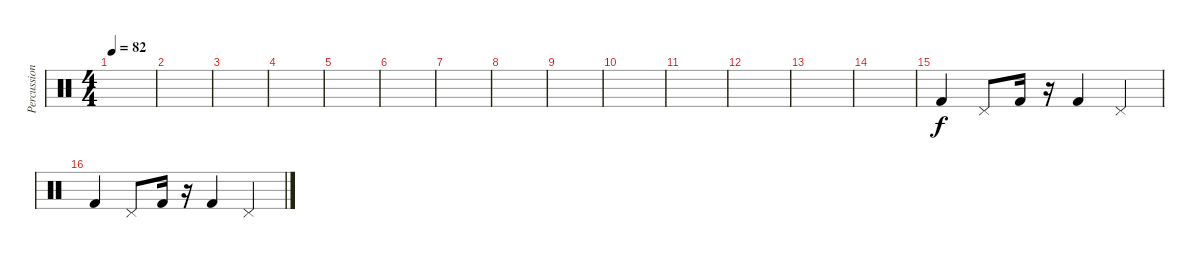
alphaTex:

\track ("Percussions" "Percussion") {instrument percussion}
\staff {score}
\articulation defaults
\ts (4 4)
\tempo 82
\clef neutral
\ks c
|
|
|
|
|
|
|
|
|
|
|
|
|
|
"Kick (hit) 2".4 "Pedal Hi-Hat (hit)".8 "Kick (hit) 2".16 r.16 "Kick (hit) 2".4 "Pedal Hi-Hat (hit)".4 |
"Kick (hit) 2".4 "Pedal Hi-Hat (hit)".8 "Kick (hit) 2".16 r.16 "Kick (hit) 2".4 "Pedal Hi-Hat (hit)".4
